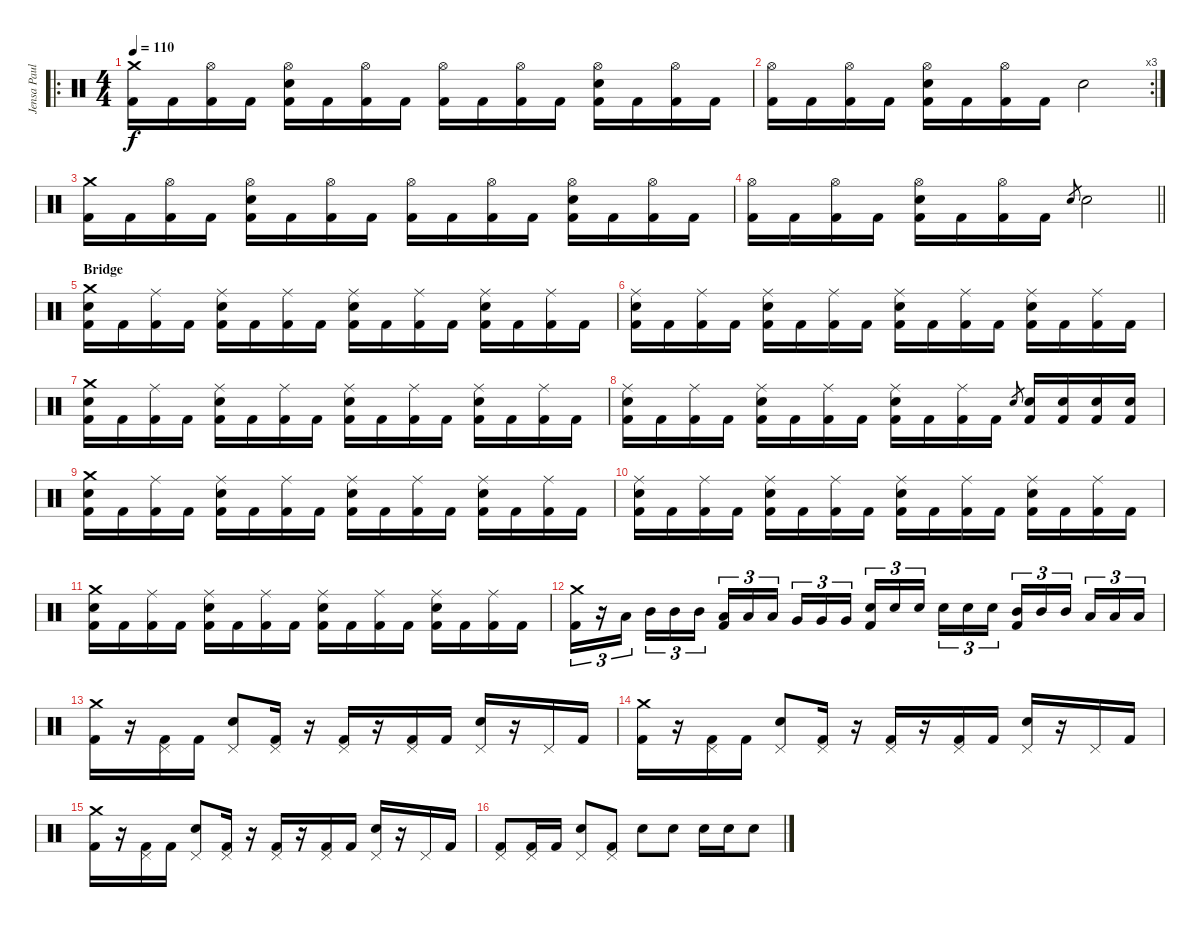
\track ("Jensa Paulsson (Drums)" "Jensa Paul") {instrument percussion}
\staff {score}
\articulation defaults
\ro
\ts (4 4)
\tempo 110
\clef neutral
\ks c
("Crash medium (hit)" "Kick (hit) 2").16{dy f} "Kick (hit) 2".16 ("Hi-Hat (open)" "Kick (hit) 2").16 "Kick (hit) 2".16 ("Hi-Hat (open)" "Electric Snare (hit)" "Kick (hit) 2").16 "Kick (hit) 2".16 ("Hi-Hat (open)" "Kick (hit) 2").16 "Kick (hit) 2".16 ("Hi-Hat (open)" "Kick (hit) 2").16 "Kick (hit) 2".16 ("Hi-Hat (open)" "Kick (hit) 2").16 "Kick (hit) 2".16 ("Hi-Hat (open)" "Electric Snare (hit)" "Kick (hit) 2").16 "Kick (hit) 2".16 ("Hi-Hat (open)" "Kick (hit) 2").16 "Kick (hit) 2".16 |
\rc 3
("Hi-Hat (open)" "Kick (hit) 2").16 "Kick (hit) 2".16 ("Hi-Hat (open)" "Kick (hit) 2").16 "Kick (hit) 2".16 ("Hi-Hat (open)" "Electric Snare (hit)" "Kick (hit) 2").16 "Kick (hit) 2".16 ("Hi-Hat (open)" "Kick (hit) 2").16 "Kick (hit) 2".16 "Electric Snare (hit)".2 |
("Crash medium (hit)" "Kick (hit) 2").16 "Kick (hit) 2".16 ("Hi-Hat (open)" "Kick (hit) 2").16 "Kick (hit) 2".16 ("Hi-Hat (open)" "Electric Snare (hit)" "Kick (hit) 2").16 "Kick (hit) 2".16 ("Hi-Hat (open)" "Kick (hit) 2").16 "Kick (hit) 2".16 ("Hi-Hat (open)" "Kick (hit) 2").16 "Kick (hit) 2".16 ("Hi-Hat (open)" "Kick (hit) 2").16 "Kick (hit) 2".16 ("Hi-Hat (open)" "Electric Snare (hit)" "Kick (hit) 2").16 "Kick (hit) 2".16 ("Hi-Hat (open)" "Kick (hit) 2").16 "Kick (hit) 2".16 |
\barLineRight lightlight
("Hi-Hat (open)" "Kick (hit) 2").16 "Kick (hit) 2".16 ("Hi-Hat (open)" "Kick (hit) 2").16 "Kick (hit) 2".16 ("Hi-Hat (open)" "Electric Snare (hit)" "Kick (hit) 2").16 "Kick (hit) 2".16 ("Hi-Hat (open)" "Kick (hit) 2").16 "Kick (hit) 2".16 "Electric Snare (hit)".8{gr} "Electric Snare (hit)".2 |
\section ("" "Bridge")
("Crash medium (hit)" "Electric Snare (hit)" "Kick (hit) 2").16 "Kick (hit) 2".16 ("Ride (middle)" "Kick (hit) 2").16 "Kick (hit) 2".16 ("Ride (middle)" "Electric Snare (hit)" "Kick (hit) 2").16 "Kick (hit) 2".16 ("Ride (middle)" "Kick (hit) 2").16 "Kick (hit) 2".16 ("Ride (middle)" "Electric Snare (hit)" "Kick (hit) 2").16 "Kick (hit) 2".16 ("Ride (middle)" "Kick (hit) 2").16 "Kick (hit) 2".16 ("Ride (middle)" "Electric Snare (hit)" "Kick (hit) 2").16 "Kick (hit) 2".16 ("Ride (middle)" "Kick (hit) 2").16 "Kick (hit) 2".16 |
("Ride (middle)" "Electric Snare (hit)" "Kick (hit) 2").16 "Kick (hit) 2".16 ("Ride (middle)" "Kick (hit) 2").16 "Kick (hit) 2".16 ("Ride (middle)" "Electric Snare (hit)" "Kick (hit) 2").16 "Kick (hit) 2".16 ("Ride (middle)" "Kick (hit) 2").16 "Kick (hit) 2".16 ("Ride (middle)" "Electric Snare (hit)" "Kick (hit) 2").16 "Kick (hit) 2".16 ("Ride (middle)" "Kick (hit) 2").16 "Kick (hit) 2".16 ("Ride (middle)" "Electric Snare (hit)" "Kick (hit) 2").16 "Kick (hit) 2".16 ("Ride (middle)" "Kick (hit) 2").16 "Kick (hit) 2".16 |
("Crash medium (hit)" "Electric Snare (hit)" "Kick (hit) 2").16 "Kick (hit) 2".16 ("Ride (middle)" "Kick (hit) 2").16 "Kick (hit) 2".16 ("Ride (middle)" "Electric Snare (hit)" "Kick (hit) 2").16 "Kick (hit) 2".16 ("Ride (middle)" "Kick (hit) 2").16 "Kick (hit) 2".16 ("Ride (middle)" "Electric Snare (hit)" "Kick (hit) 2").16 "Kick (hit) 2".16 ("Ride (middle)" "Kick (hit) 2").16 "Kick (hit) 2".16 ("Ride (middle)" "Electric Snare (hit)" "Kick (hit) 2").16 "Kick (hit) 2".16 ("Ride (middle)" "Kick (hit) 2").16 "Kick (hit) 2".16 |
("Ride (middle)" "Electric Snare (hit)" "Kick (hit) 2").16 "Kick (hit) 2".16 ("Ride (middle)" "Kick (hit) 2").16 "Kick (hit) 2".16 ("Ride (middle)" "Electric Snare (hit)" "Kick (hit) 2").16 "Kick (hit) 2".16 ("Ride (middle)" "Kick (hit) 2").16 "Kick (hit) 2".16 ("Ride (middle)" "Electric Snare (hit)" "Kick (hit) 2").16 "Kick (hit) 2".16 ("Ride (middle)" "Kick (hit) 2").16 "Kick (hit) 2".16 "Electric Snare (hit)".8{gr} ("Electric Snare (hit)" "Kick (hit) 2").16 ("Electric Snare (hit)" "Kick (hit) 2").16 ("Electric Snare (hit)" "Kick (hit) 2").16 ("Electric Snare (hit)" "Kick (hit) 2").16 |
("Crash medium (hit)" "Electric Snare (hit)" "Kick (hit) 2").16 "Kick (hit) 2".16 ("Ride (middle)" "Kick (hit) 2").16 "Kick (hit) 2".16 ("Ride (middle)" "Electric Snare (hit)" "Kick (hit) 2").16 "Kick (hit) 2".16 ("Ride (middle)" "Kick (hit) 2").16 "Kick (hit) 2".16 ("Ride (middle)" "Electric Snare (hit)" "Kick (hit) 2").16 "Kick (hit) 2".16 ("Ride (middle)" "Kick (hit) 2").16 "Kick (hit) 2".16 ("Ride (middle)" "Electric Snare (hit)" "Kick (hit) 2").16 "Kick (hit) 2".16 ("Ride (middle)" "Kick (hit) 2").16 "Kick (hit) 2".16 |
("Ride (middle)" "Electric Snare (hit)" "Kick (hit) 2").16 "Kick (hit) 2".16 ("Ride (middle)" "Kick (hit) 2").16 "Kick (hit) 2".16 ("Ride (middle)" "Electric Snare (hit)" "Kick (hit) 2").16 "Kick (hit) 2".16 ("Ride (middle)" "Kick (hit) 2").16 "Kick (hit) 2".16 ("Ride (middle)" "Electric Snare (hit)" "Kick (hit) 2").16 "Kick (hit) 2".16 ("Ride (middle)" "Kick (hit) 2").16 "Kick (hit) 2".16 ("Ride (middle)" "Electric Snare (hit)" "Kick (hit) 2").16 "Kick (hit) 2".16 ("Ride (middle)" "Kick (hit) 2").16 "Kick (hit) 2".16 |
("Crash medium (hit)" "Electric Snare (hit)" "Kick (hit) 2").16 "Kick (hit) 2".16 ("Ride (middle)" "Kick (hit) 2").16 "Kick (hit) 2".16 ("Ride (middle)" "Electric Snare (hit)" "Kick (hit) 2").16 "Kick (hit) 2".16 ("Ride (middle)" "Kick (hit) 2").16 "Kick (hit) 2".16 ("Ride (middle)" "Electric Snare (hit)" "Kick (hit) 2").16 "Kick (hit) 2".16 ("Ride (middle)" "Kick (hit) 2").16 "Kick (hit) 2".16 ("Ride (middle)" "Electric Snare (hit)" "Kick (hit) 2").16 "Kick (hit) 2".16 ("Ride (middle)" "Kick (hit) 2").16 "Kick (hit) 2".16 |
("Crash medium (hit)" "Kick (hit) 2").16{tu (3 2)} r.16{tu (3 2)} "Low Tom (hit)".16{tu (3 2) beam splitsecondary} "Mid Tom (hit)".16{tu (3 2)} "Mid Tom (hit)".16{tu (3 2)} "Mid Tom (hit)".16{tu (3 2)} ("Low Tom (hit)" "Kick (hit) 2").16{tu (3 2)} "Low Tom (hit)".16{tu (3 2)} "Low Tom (hit)".16{tu (3 2) beam splitsecondary} "Very Low Tom (hit)".16{tu (3 2)} "Very Low Tom (hit)".16{tu (3 2)} "Very Low Tom (hit)".16{tu (3 2)} ("Electric Snare (hit)" "Kick (hit) 2").16{tu (3 2)} "Electric Snare (hit)".16{tu (3 2)} "Electric Snare (hit)".16{tu (3 2) beam splitsecondary} "Electric Snare (hit)".16{tu (3 2)} "Electric Snare (hit)".16{tu (3 2)} "Electric Snare (hit)".16{tu (3 2)} ("Mid Tom (hit)" "Kick (hit) 2").16{tu (3 2)} "Mid Tom (hit)".16{tu (3 2)} "Mid Tom (hit)".16{tu (3 2) beam splitsecondary} "Low Tom (hit)".16{tu (3 2)} "Low Tom (hit)".16{tu (3 2)} "Low Tom (hit)".16{tu (3 2)} |
("Crash medium (hit)" "Kick (hit) 2").16 r.16 ("Pedal Hi-Hat (hit)" "Kick (hit) 2").16 "Kick (hit) 2".16 ("Pedal Hi-Hat (hit)" "Electric Snare (hit)").8 ("Pedal Hi-Hat (hit)" "Kick (hit) 2").16 r.16 ("Pedal Hi-Hat (hit)" "Kick (hit) 2").16 r.16 ("Pedal Hi-Hat (hit)" "Kick (hit) 2").16 "Kick (hit) 2".16 ("Pedal Hi-Hat (hit)" "Electric Snare (hit)").16 r.16 "Pedal Hi-Hat (hit)".16 "Kick (hit) 2".16 |
("Crash medium (hit)" "Kick (hit) 2").16 r.16 ("Pedal Hi-Hat (hit)" "Kick (hit) 2").16 "Kick (hit) 2".16 ("Pedal Hi-Hat (hit)" "Electric Snare (hit)").8 ("Pedal Hi-Hat (hit)" "Kick (hit) 2").16 r.16 ("Pedal Hi-Hat (hit)" "Kick (hit) 2").16 r.16 ("Pedal Hi-Hat (hit)" "Kick (hit) 2").16 "Kick (hit) 2".16 ("Pedal Hi-Hat (hit)" "Electric Snare (hit)").16 r.16 "Pedal Hi-Hat (hit)".16 "Kick (hit) 2".16 |
("Crash medium (hit)" "Kick (hit) 2").16 r.16 ("Pedal Hi-Hat (hit)" "Kick (hit) 2").16 "Kick (hit) 2".16 ("Pedal Hi-Hat (hit)" "Electric Snare (hit)").8 ("Pedal Hi-Hat (hit)" "Kick (hit) 2").16 r.16 ("Pedal Hi-Hat (hit)" "Kick (hit) 2").16 r.16 ("Pedal Hi-Hat (hit)" "Kick (hit) 2").16 "Kick (hit) 2".16 ("Pedal Hi-Hat (hit)" "Electric Snare (hit)").16 r.16 "Pedal Hi-Hat (hit)".16 "Kick (hit) 2".16 |
("Pedal Hi-Hat (hit)" "Kick (hit) 2").8 ("Pedal Hi-Hat (hit)" "Kick (hit) 2").16 "Kick (hit) 2".16 ("Pedal Hi-Hat (hit)" "Electric Snare (hit)").8 ("Pedal Hi-Hat (hit)" "Kick (hit) 2").8 "Electric Snare (hit)".8 "Electric Snare (hit)".8 "Electric Snare (hit)".16 "Electric Snare (hit)".16 "Electric Snare (hit)".8
